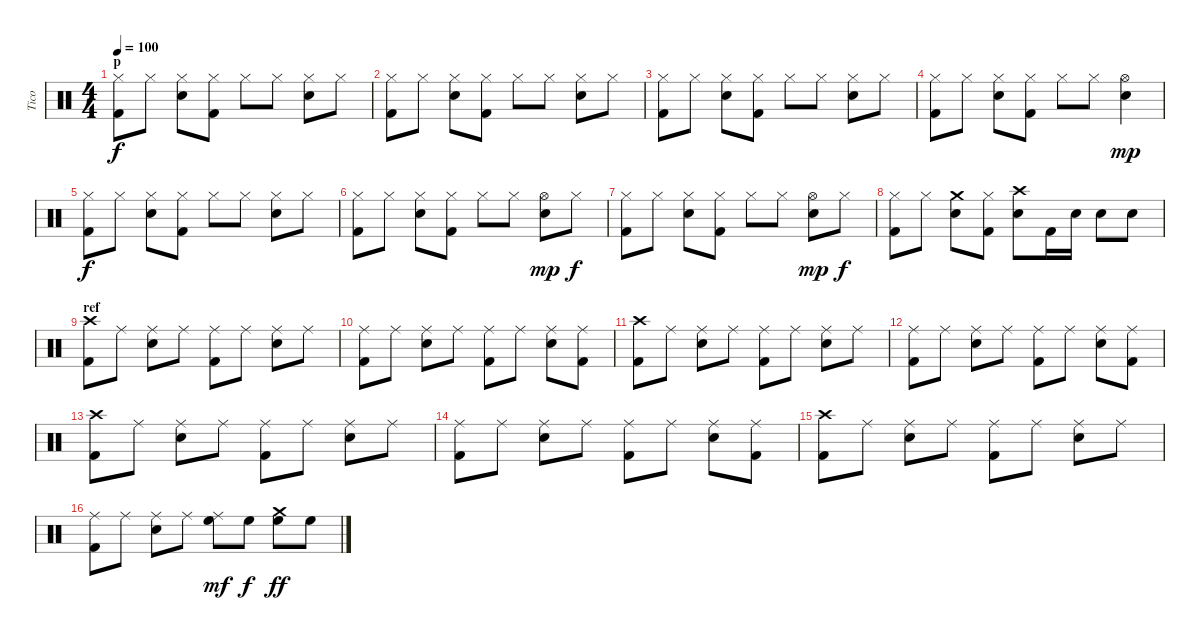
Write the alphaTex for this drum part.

\track ("Tico" "Tico") {instrument percussion}
\staff {score}
\articulation defaults
\ts (4 4)
\section ("" "p")
\tempo 100
\clef neutral
\ks c
("Hi-Hat (closed)" "Kick (hit) 2").8{dy f} "Hi-Hat (closed)".8 ("Hi-Hat (closed)" "Snare (hit) 2").8 ("Hi-Hat (closed)" "Kick (hit) 2").8 "Hi-Hat (closed)".8 "Hi-Hat (closed)".8 ("Hi-Hat (closed)" "Snare (hit) 2").8 "Hi-Hat (closed)".8 |
("Hi-Hat (closed)" "Kick (hit) 2").8 "Hi-Hat (closed)".8 ("Hi-Hat (closed)" "Snare (hit) 2").8 ("Hi-Hat (closed)" "Kick (hit) 2").8 "Hi-Hat (closed)".8 "Hi-Hat (closed)".8 ("Hi-Hat (closed)" "Snare (hit) 2").8 "Hi-Hat (closed)".8 |
("Hi-Hat (closed)" "Kick (hit) 2").8 "Hi-Hat (closed)".8 ("Hi-Hat (closed)" "Snare (hit) 2").8 ("Hi-Hat (closed)" "Kick (hit) 2").8 "Hi-Hat (closed)".8 "Hi-Hat (closed)".8 ("Hi-Hat (closed)" "Snare (hit) 2").8 "Hi-Hat (closed)".8 |
("Hi-Hat (closed)" "Kick (hit) 2").8 "Hi-Hat (closed)".8 ("Hi-Hat (closed)" "Snare (hit) 2").8 ("Hi-Hat (closed)" "Kick (hit) 2").8 "Hi-Hat (closed)".8 "Hi-Hat (closed)".8 ("Hi-Hat (open)" "Snare (hit) 2").4{dy mp} |
("Hi-Hat (closed)" "Kick (hit) 2").8{dy f} "Hi-Hat (closed)".8 ("Hi-Hat (closed)" "Snare (hit) 2").8 ("Hi-Hat (closed)" "Kick (hit) 2").8 "Hi-Hat (closed)".8 "Hi-Hat (closed)".8 ("Hi-Hat (closed)" "Snare (hit) 2").8 "Hi-Hat (closed)".8 |
("Hi-Hat (closed)" "Kick (hit) 2").8 "Hi-Hat (closed)".8 ("Hi-Hat (closed)" "Snare (hit) 2").8 ("Hi-Hat (closed)" "Kick (hit) 2").8 "Hi-Hat (closed)".8 "Hi-Hat (closed)".8 ("Hi-Hat (open)" "Snare (hit) 2").8{dy mp} "Hi-Hat (closed)".8{dy f} |
("Hi-Hat (closed)" "Kick (hit) 2").8 "Hi-Hat (closed)".8 ("Hi-Hat (closed)" "Snare (hit) 2").8 ("Hi-Hat (closed)" "Kick (hit) 2").8 "Hi-Hat (closed)".8 "Hi-Hat (closed)".8 ("Hi-Hat (open)" "Snare (hit) 2").8{dy mp} "Hi-Hat (closed)".8{dy f} |
("Hi-Hat (closed)" "Kick (hit) 2").8 "Hi-Hat (closed)".8 ("Crash medium (hit)" "Snare (hit) 2").8 ("Hi-Hat (closed)" "Kick (hit) 2").8 ("Crash high (hit)" "Snare (hit) 2").8 "Kick (hit) 2".16 "Snare (hit) 2".16 "Snare (hit) 2".8 "Snare (hit) 2".8 |
\section ("" "ref")
("Crash high (hit)" "Kick (hit) 2").8 "Ride (middle)".8 ("Ride (middle)" "Snare (hit) 2").8 "Ride (middle)".8 ("Ride (middle)" "Kick (hit) 2").8 "Ride (middle)".8 ("Ride (middle)" "Snare (hit) 2").8 "Ride (middle)".8 |
("Ride (middle)" "Kick (hit) 2").8 "Ride (middle)".8 ("Ride (middle)" "Snare (hit) 2").8 "Ride (middle)".8 ("Ride (middle)" "Kick (hit) 2").8 "Ride (middle)".8 ("Ride (middle)" "Snare (hit) 2").8 ("Ride (middle)" "Kick (hit) 2").8 |
("Crash high (hit)" "Kick (hit) 2").8 "Ride (middle)".8 ("Ride (middle)" "Snare (hit) 2").8 "Ride (middle)".8 ("Ride (middle)" "Kick (hit) 2").8 "Ride (middle)".8 ("Ride (middle)" "Snare (hit) 2").8 "Ride (middle)".8 |
("Ride (middle)" "Kick (hit) 2").8 "Ride (middle)".8 ("Ride (middle)" "Snare (hit) 2").8 "Ride (middle)".8 ("Ride (middle)" "Kick (hit) 2").8 "Ride (middle)".8 ("Ride (middle)" "Snare (hit) 2").8 ("Ride (middle)" "Kick (hit) 2").8 |
("Crash high (hit)" "Kick (hit) 2").8 "Ride (middle)".8 ("Ride (middle)" "Snare (hit) 2").8 "Ride (middle)".8 ("Ride (middle)" "Kick (hit) 2").8 "Ride (middle)".8 ("Ride (middle)" "Snare (hit) 2").8 "Ride (middle)".8 |
("Ride (middle)" "Kick (hit) 2").8 "Ride (middle)".8 ("Ride (middle)" "Snare (hit) 2").8 "Ride (middle)".8 ("Ride (middle)" "Kick (hit) 2").8 "Ride (middle)".8 ("Ride (middle)" "Snare (hit) 2").8 ("Ride (middle)" "Kick (hit) 2").8 |
("Crash high (hit)" "Kick (hit) 2").8 "Ride (middle)".8 ("Ride (middle)" "Snare (hit) 2").8 "Ride (middle)".8 ("Ride (middle)" "Kick (hit) 2").8 "Ride (middle)".8 ("Ride (middle)" "Snare (hit) 2").8 "Ride (middle)".8 |
("Ride (middle)" "Kick (hit) 2").8 "Ride (middle)".8 ("Ride (middle)" "Snare (hit) 2").8 "Ride (middle)".8 ("Ride (middle)" "High Floor Tom (hit)").8{dy mf} "High Floor Tom (hit)".8{dy f} ("Crash medium (hit)" "High Floor Tom (hit)").8{dy ff} "High Floor Tom (hit)".8
